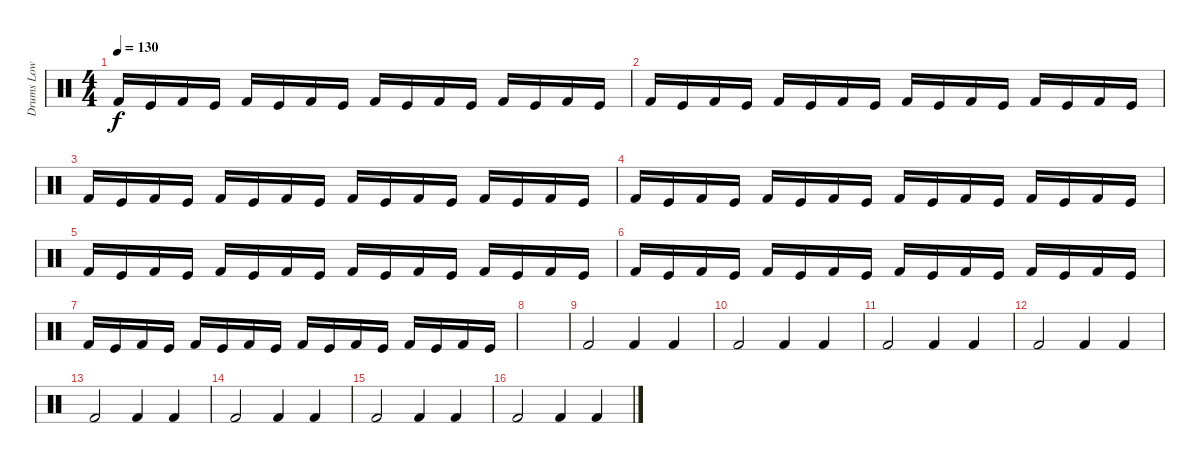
\track ("Drums Low" "Drums Low") {instrument percussion}
\staff {score}
\articulation defaults
\ts (4 4)
\tempo 130
\clef neutral
\ks c "Kick (hit) 2".16{dy f} "Kick (hit)".16 "Kick (hit) 2".16 "Kick (hit)".16 "Kick (hit) 2".16 "Kick (hit)".16 "Kick (hit) 2".16 "Kick (hit)".16 "Kick (hit) 2".16 "Kick (hit)".16 "Kick (hit) 2".16 "Kick (hit)".16 "Kick (hit) 2".16 "Kick (hit)".16 "Kick (hit) 2".16 "Kick (hit)".16
|
"Kick (hit) 2".16 "Kick (hit)".16 "Kick (hit) 2".16 "Kick (hit)".16 "Kick (hit) 2".16 "Kick (hit)".16 "Kick (hit) 2".16 "Kick (hit)".16 "Kick (hit) 2".16 "Kick (hit)".16 "Kick (hit) 2".16 "Kick (hit)".16 "Kick (hit) 2".16 "Kick (hit)".16 "Kick (hit) 2".16 "Kick (hit)".16 |
"Kick (hit) 2".16 "Kick (hit)".16 "Kick (hit) 2".16 "Kick (hit)".16 "Kick (hit) 2".16 "Kick (hit)".16 "Kick (hit) 2".16 "Kick (hit)".16 "Kick (hit) 2".16 "Kick (hit)".16 "Kick (hit) 2".16 "Kick (hit)".16 "Kick (hit) 2".16 "Kick (hit)".16 "Kick (hit) 2".16 "Kick (hit)".16 |
"Kick (hit) 2".16 "Kick (hit)".16 "Kick (hit) 2".16 "Kick (hit)".16 "Kick (hit) 2".16 "Kick (hit)".16 "Kick (hit) 2".16 "Kick (hit)".16 "Kick (hit) 2".16 "Kick (hit)".16 "Kick (hit) 2".16 "Kick (hit)".16 "Kick (hit) 2".16 "Kick (hit)".16 "Kick (hit) 2".16 "Kick (hit)".16 |
"Kick (hit) 2".16 "Kick (hit)".16 "Kick (hit) 2".16 "Kick (hit)".16 "Kick (hit) 2".16 "Kick (hit)".16 "Kick (hit) 2".16 "Kick (hit)".16 "Kick (hit) 2".16 "Kick (hit)".16 "Kick (hit) 2".16 "Kick (hit)".16 "Kick (hit) 2".16 "Kick (hit)".16 "Kick (hit) 2".16 "Kick (hit)".16 |
"Kick (hit) 2".16 "Kick (hit)".16 "Kick (hit) 2".16 "Kick (hit)".16 "Kick (hit) 2".16 "Kick (hit)".16 "Kick (hit) 2".16 "Kick (hit)".16 "Kick (hit) 2".16 "Kick (hit)".16 "Kick (hit) 2".16 "Kick (hit)".16 "Kick (hit) 2".16 "Kick (hit)".16 "Kick (hit) 2".16 "Kick (hit)".16 |
"Kick (hit) 2".16 "Kick (hit)".16 "Kick (hit) 2".16 "Kick (hit)".16 "Kick (hit) 2".16 "Kick (hit)".16 "Kick (hit) 2".16 "Kick (hit)".16 "Kick (hit) 2".16 "Kick (hit)".16 "Kick (hit) 2".16 "Kick (hit)".16 "Kick (hit) 2".16 "Kick (hit)".16 "Kick (hit) 2".16 "Kick (hit)".16 |
|
"Kick (hit) 2".2 "Kick (hit) 2".4 "Kick (hit) 2".4 |
"Kick (hit) 2".2 "Kick (hit) 2".4 "Kick (hit) 2".4 |
"Kick (hit) 2".2 "Kick (hit) 2".4 "Kick (hit) 2".4 |
"Kick (hit) 2".2 "Kick (hit) 2".4 "Kick (hit) 2".4 |
"Kick (hit) 2".2 "Kick (hit) 2".4 "Kick (hit) 2".4 |
"Kick (hit) 2".2 "Kick (hit) 2".4 "Kick (hit) 2".4 |
"Kick (hit) 2".2 "Kick (hit) 2".4 "Kick (hit) 2".4 |
"Kick (hit) 2".2 "Kick (hit) 2".4 "Kick (hit) 2".4
